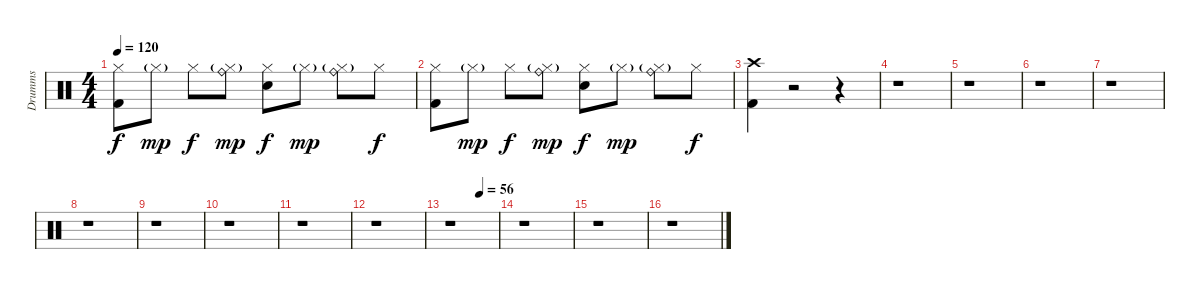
\track ("Drumms" "Drumms") {instrument percussion}
\staff {score}
\articulation defaults
\ts (4 4)
\tempo 120
\clef neutral
\ks c
("Kick (hit) 2" "Hi-Hat (closed)").8{dy f} "Hi-Hat (closed)"{g}.8{dy mp} "Hi-Hat (closed)".8{dy f} ("Ride (bell)" "Hi-Hat (closed)"{g}).8{dy mp} ("Hi-Hat (closed)" "Snare (hit) 2").8{dy f} "Hi-Hat (closed)"{g}.8{dy mp} ("Ride (bell)" "Hi-Hat (closed)"{g}).8 "Hi-Hat (closed)".8{dy f} |
("Kick (hit) 2" "Hi-Hat (closed)").8 "Hi-Hat (closed)"{g}.8{dy mp} "Hi-Hat (closed)".8{dy f} ("Ride (bell)" "Hi-Hat (closed)"{g}).8{dy mp} ("Hi-Hat (closed)" "Snare (hit) 2").8{dy f} "Hi-Hat (closed)"{g}.8{dy mp} ("Ride (bell)" "Hi-Hat (closed)"{g}).8 "Hi-Hat (closed)".8{dy f} |
("Kick (hit) 2" "Crash high (hit)").4 r.2 r.4 |
r.1 |
r.1 |
r.1 |
r.1 |
r.1 |
r.1 |
r.1 |
r.1 |
r.1 |
\tempo (56 0.625)
r.1 |
r.1 |
r.1 |
r.1
